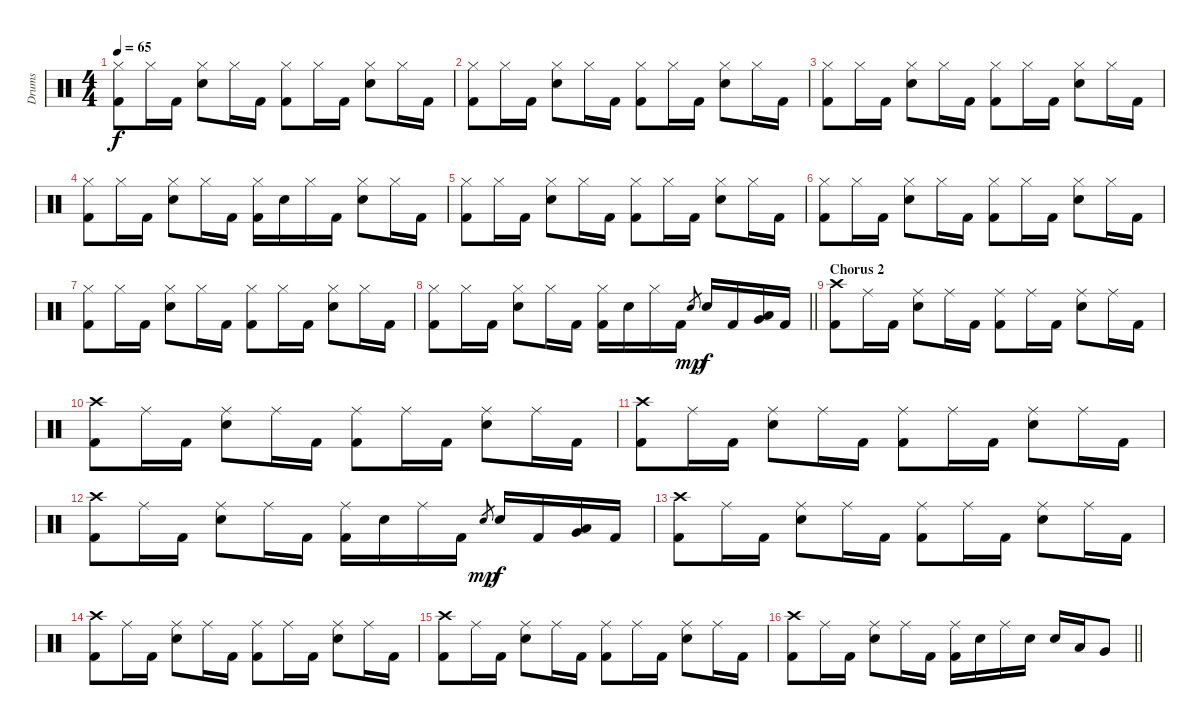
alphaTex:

\track ("Drums" "Drums") {instrument percussion}
\staff {score}
\articulation defaults
\ts (4 4)
\tempo 65
\clef neutral
\ks c
("Hi-Hat (closed)" "Kick (hit) 2").8{dy f} "Hi-Hat (closed)".16 "Kick (hit) 2".16 ("Hi-Hat (closed)" "Electric Snare (hit)").8 "Hi-Hat (closed)".16 "Kick (hit) 2".16 ("Hi-Hat (closed)" "Kick (hit) 2").8 "Hi-Hat (closed)".16 "Kick (hit) 2".16 ("Hi-Hat (closed)" "Electric Snare (hit)").8 "Hi-Hat (closed)".16 "Kick (hit) 2".16 |
("Hi-Hat (closed)" "Kick (hit) 2").8 "Hi-Hat (closed)".16 "Kick (hit) 2".16 ("Hi-Hat (closed)" "Electric Snare (hit)").8 "Hi-Hat (closed)".16 "Kick (hit) 2".16 ("Hi-Hat (closed)" "Kick (hit) 2").8 "Hi-Hat (closed)".16 "Kick (hit) 2".16 ("Hi-Hat (closed)" "Electric Snare (hit)").8 "Hi-Hat (closed)".16 "Kick (hit) 2".16 |
("Hi-Hat (closed)" "Kick (hit) 2").8 "Hi-Hat (closed)".16 "Kick (hit) 2".16 ("Hi-Hat (closed)" "Electric Snare (hit)").8 "Hi-Hat (closed)".16 "Kick (hit) 2".16 ("Hi-Hat (closed)" "Kick (hit) 2").8 "Hi-Hat (closed)".16 "Kick (hit) 2".16 ("Hi-Hat (closed)" "Electric Snare (hit)").8 "Hi-Hat (closed)".16 "Kick (hit) 2".16 |
("Hi-Hat (closed)" "Kick (hit) 2").8 "Hi-Hat (closed)".16 "Kick (hit) 2".16 ("Hi-Hat (closed)" "Electric Snare (hit)").8 "Hi-Hat (closed)".16 "Kick (hit) 2".16 ("Hi-Hat (closed)" "Kick (hit) 2").16 "Electric Snare (hit)".16 "Hi-Hat (closed)".16 "Kick (hit) 2".16 ("Hi-Hat (closed)" "Electric Snare (hit)").8 "Hi-Hat (closed)".16 "Kick (hit) 2".16 |
("Hi-Hat (closed)" "Kick (hit) 2").8 "Hi-Hat (closed)".16 "Kick (hit) 2".16 ("Hi-Hat (closed)" "Electric Snare (hit)").8 "Hi-Hat (closed)".16 "Kick (hit) 2".16 ("Hi-Hat (closed)" "Kick (hit) 2").8 "Hi-Hat (closed)".16 "Kick (hit) 2".16 ("Hi-Hat (closed)" "Electric Snare (hit)").8 "Hi-Hat (closed)".16 "Kick (hit) 2".16 |
("Hi-Hat (closed)" "Kick (hit) 2").8 "Hi-Hat (closed)".16 "Kick (hit) 2".16 ("Hi-Hat (closed)" "Electric Snare (hit)").8 "Hi-Hat (closed)".16 "Kick (hit) 2".16 ("Hi-Hat (closed)" "Kick (hit) 2").8 "Hi-Hat (closed)".16 "Kick (hit) 2".16 ("Hi-Hat (closed)" "Electric Snare (hit)").8 "Hi-Hat (closed)".16 "Kick (hit) 2".16 |
("Hi-Hat (closed)" "Kick (hit) 2").8 "Hi-Hat (closed)".16 "Kick (hit) 2".16 ("Hi-Hat (closed)" "Electric Snare (hit)").8 "Hi-Hat (closed)".16 "Kick (hit) 2".16 ("Hi-Hat (closed)" "Kick (hit) 2").8 "Hi-Hat (closed)".16 "Kick (hit) 2".16 ("Hi-Hat (closed)" "Electric Snare (hit)").8 "Hi-Hat (closed)".16 "Kick (hit) 2".16 |
\barLineRight lightlight
("Hi-Hat (closed)" "Kick (hit) 2").8 "Hi-Hat (closed)".16 "Kick (hit) 2".16 ("Hi-Hat (closed)" "Electric Snare (hit)").8 "Hi-Hat (closed)".16 "Kick (hit) 2".16 ("Hi-Hat (closed)" "Kick (hit) 2").16 "Electric Snare (hit)".16 "Hi-Hat (closed)".16 "Kick (hit) 2".16 "Electric Snare (hit)".8{gr dy mp} "Electric Snare (hit)".16{dy f} "Kick (hit) 2".16 ("Very Low Tom (hit)" "Low Tom (hit)").16 "Kick (hit) 2".16 |
\section ("" "Chorus 2")
("Crash high (hit)" "Kick (hit) 2").8 "Ride (middle)".16 "Kick (hit) 2".16 ("Ride (middle)" "Electric Snare (hit)").8 "Ride (middle)".16 "Kick (hit) 2".16 ("Ride (middle)" "Kick (hit) 2").8 "Ride (middle)".16 "Kick (hit) 2".16 ("Ride (middle)" "Electric Snare (hit)").8 "Ride (middle)".16 "Kick (hit) 2".16 |
("Crash high (hit)" "Kick (hit) 2").8 "Ride (middle)".16 "Kick (hit) 2".16 ("Ride (middle)" "Electric Snare (hit)").8 "Ride (middle)".16 "Kick (hit) 2".16 ("Ride (middle)" "Kick (hit) 2").8 "Ride (middle)".16 "Kick (hit) 2".16 ("Ride (middle)" "Electric Snare (hit)").8 "Ride (middle)".16 "Kick (hit) 2".16 |
("Crash high (hit)" "Kick (hit) 2").8 "Ride (middle)".16 "Kick (hit) 2".16 ("Ride (middle)" "Electric Snare (hit)").8 "Ride (middle)".16 "Kick (hit) 2".16 ("Ride (middle)" "Kick (hit) 2").8 "Ride (middle)".16 "Kick (hit) 2".16 ("Ride (middle)" "Electric Snare (hit)").8 "Ride (middle)".16 "Kick (hit) 2".16 |
("Crash high (hit)" "Kick (hit) 2").8 "Ride (middle)".16 "Kick (hit) 2".16 ("Ride (middle)" "Electric Snare (hit)").8 "Ride (middle)".16 "Kick (hit) 2".16 ("Ride (middle)" "Kick (hit) 2").16 "Electric Snare (hit)".16 "Ride (middle)".16 "Kick (hit) 2".16 "Electric Snare (hit)".8{gr dy mp} "Electric Snare (hit)".16{dy f} "Kick (hit) 2".16 ("Very Low Tom (hit)" "Low Tom (hit)").16 "Kick (hit) 2".16 |
("Crash high (hit)" "Kick (hit) 2").8 "Ride (middle)".16 "Kick (hit) 2".16 ("Ride (middle)" "Electric Snare (hit)").8 "Ride (middle)".16 "Kick (hit) 2".16 ("Ride (middle)" "Kick (hit) 2").8 "Ride (middle)".16 "Kick (hit) 2".16 ("Ride (middle)" "Electric Snare (hit)").8 "Ride (middle)".16 "Kick (hit) 2".16 |
("Crash high (hit)" "Kick (hit) 2").8 "Ride (middle)".16 "Kick (hit) 2".16 ("Ride (middle)" "Electric Snare (hit)").8 "Ride (middle)".16 "Kick (hit) 2".16 ("Ride (middle)" "Kick (hit) 2").8 "Ride (middle)".16 "Kick (hit) 2".16 ("Ride (middle)" "Electric Snare (hit)").8 "Ride (middle)".16 "Kick (hit) 2".16 |
("Crash high (hit)" "Kick (hit) 2").8 "Ride (middle)".16 "Kick (hit) 2".16 ("Ride (middle)" "Electric Snare (hit)").8 "Ride (middle)".16 "Kick (hit) 2".16 ("Ride (middle)" "Kick (hit) 2").8 "Ride (middle)".16 "Kick (hit) 2".16 ("Ride (middle)" "Electric Snare (hit)").8 "Ride (middle)".16 "Kick (hit) 2".16 |
\barLineRight lightlight
("Crash high (hit)" "Kick (hit) 2").8 "Ride (middle)".16 "Kick (hit) 2".16 ("Ride (middle)" "Electric Snare (hit)").8 "Ride (middle)".16 "Kick (hit) 2".16 ("Ride (middle)" "Kick (hit) 2").16 "Electric Snare (hit)".16 "Ride (middle)".16 "Electric Snare (hit)".16 "Electric Snare (hit)".16 "Low Tom (hit)".16 "Very Low Tom (hit)".8
